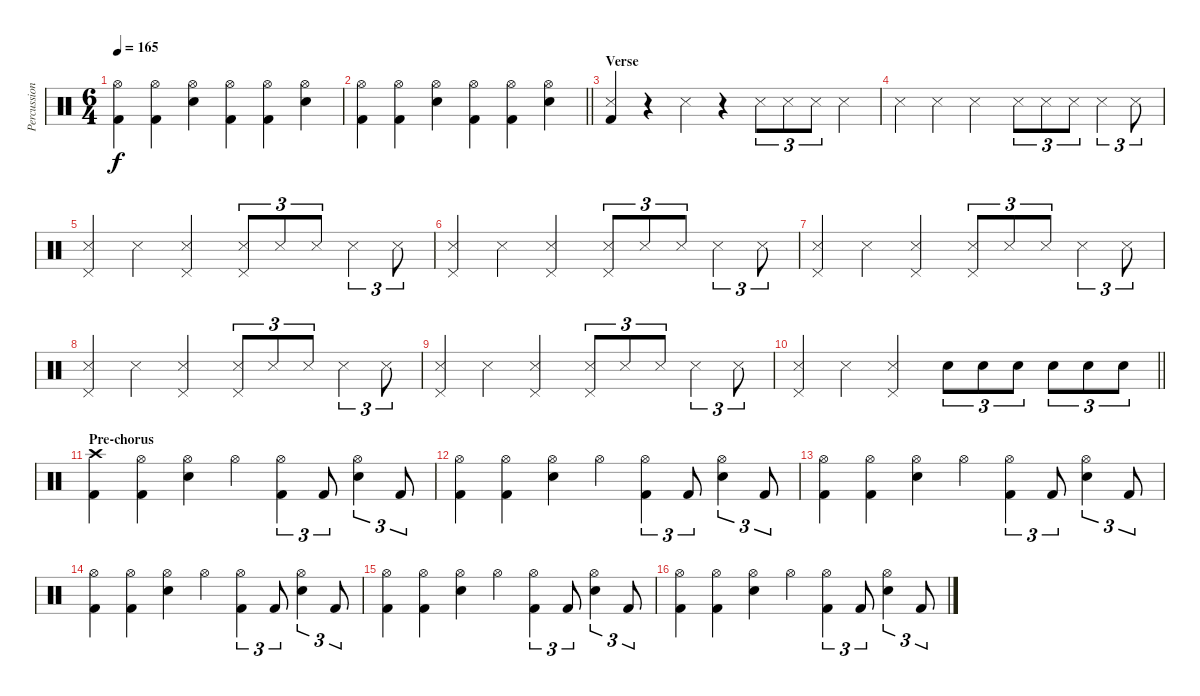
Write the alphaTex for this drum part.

\track ("Percussion" "Percussion") {instrument percussion}
\staff {score}
\articulation defaults
\ts (6 4)
\tempo 165
\clef neutral
\ks c
("Hi-Hat (open)" "Kick (hit) 2").4{dy f} ("Hi-Hat (open)" "Kick (hit) 2").4 ("Hi-Hat (open)" "Electric Snare (hit)").4 ("Hi-Hat (open)" "Kick (hit) 2").4 ("Hi-Hat (open)" "Kick (hit) 2").4 ("Hi-Hat (open)" "Electric Snare (hit)").4 |
\barLineRight lightlight
("Hi-Hat (open)" "Kick (hit) 2").4 ("Hi-Hat (open)" "Kick (hit) 2").4 ("Hi-Hat (open)" "Electric Snare (hit)").4 ("Hi-Hat (open)" "Kick (hit) 2").4 ("Hi-Hat (open)" "Kick (hit) 2").4 ("Hi-Hat (open)" "Electric Snare (hit)").4 |
\section ("" "Verse")
("Snare (side stick) 3" "Kick (hit) 2").4 r.4 "Snare (side stick) 3".4 r.4 "Snare (side stick) 3".8{tu (3 2)} "Snare (side stick) 3".8{tu (3 2)} "Snare (side stick) 3".8{tu (3 2)} "Snare (side stick) 3".4 |
"Snare (side stick) 3".4 "Snare (side stick) 3".4 "Snare (side stick) 3".2 "Snare (side stick) 3".8{tu (3 2)} "Snare (side stick) 3".8{tu (3 2)} "Snare (side stick) 3".8{tu (3 2)} "Snare (side stick) 3".4{tu (3 2)} "Snare (side stick) 3".8{tu (3 2)} |
("Pedal Hi-Hat (hit)" "Snare (side stick) 3").4 "Snare (side stick) 3".4 ("Pedal Hi-Hat (hit)" "Snare (side stick) 3").2 ("Pedal Hi-Hat (hit)" "Snare (side stick) 3").8{tu (3 2)} "Snare (side stick) 3".8{tu (3 2)} "Snare (side stick) 3".8{tu (3 2)} "Snare (side stick) 3".4{tu (3 2)} "Snare (side stick) 3".8{tu (3 2)} |
("Pedal Hi-Hat (hit)" "Snare (side stick) 3").4 "Snare (side stick) 3".4 ("Pedal Hi-Hat (hit)" "Snare (side stick) 3").2 ("Pedal Hi-Hat (hit)" "Snare (side stick) 3").8{tu (3 2)} "Snare (side stick) 3".8{tu (3 2)} "Snare (side stick) 3".8{tu (3 2)} "Snare (side stick) 3".4{tu (3 2)} "Snare (side stick) 3".8{tu (3 2)} |
("Pedal Hi-Hat (hit)" "Snare (side stick) 3").4 "Snare (side stick) 3".4 ("Pedal Hi-Hat (hit)" "Snare (side stick) 3").2 ("Pedal Hi-Hat (hit)" "Snare (side stick) 3").8{tu (3 2)} "Snare (side stick) 3".8{tu (3 2)} "Snare (side stick) 3".8{tu (3 2)} "Snare (side stick) 3".4{tu (3 2)} "Snare (side stick) 3".8{tu (3 2)} |
("Pedal Hi-Hat (hit)" "Snare (side stick) 3").4 "Snare (side stick) 3".4 ("Pedal Hi-Hat (hit)" "Snare (side stick) 3").2 ("Pedal Hi-Hat (hit)" "Snare (side stick) 3").8{tu (3 2)} "Snare (side stick) 3".8{tu (3 2)} "Snare (side stick) 3".8{tu (3 2)} "Snare (side stick) 3".4{tu (3 2)} "Snare (side stick) 3".8{tu (3 2)} |
("Pedal Hi-Hat (hit)" "Snare (side stick) 3").4 "Snare (side stick) 3".4 ("Pedal Hi-Hat (hit)" "Snare (side stick) 3").2 ("Pedal Hi-Hat (hit)" "Snare (side stick) 3").8{tu (3 2)} "Snare (side stick) 3".8{tu (3 2)} "Snare (side stick) 3".8{tu (3 2)} "Snare (side stick) 3".4{tu (3 2)} "Snare (side stick) 3".8{tu (3 2)} |
\barLineRight lightlight
("Pedal Hi-Hat (hit)" "Snare (side stick) 3").4 "Snare (side stick) 3".4 ("Pedal Hi-Hat (hit)" "Snare (side stick) 3").2 "Electric Snare (hit)".8{tu (3 2)} "Electric Snare (hit)".8{tu (3 2)} "Electric Snare (hit)".8{tu (3 2)} "Electric Snare (hit)".8{tu (3 2)} "Electric Snare (hit)".8{tu (3 2)} "Electric Snare (hit)".8{tu (3 2)} |
\section ("" "Pre-chorus")
("Crash high (hit)" "Kick (hit) 2").4 ("Hi-Hat (open)" "Kick (hit) 2").4 ("Hi-Hat (open)" "Electric Snare (hit)").4 "Hi-Hat (open)".4 ("Hi-Hat (open)" "Kick (hit) 2").4{tu (3 2)} "Kick (hit) 2".8{tu (3 2)} ("Hi-Hat (open)" "Electric Snare (hit)").4{tu (3 2)} "Kick (hit) 2".8{tu (3 2)} |
("Hi-Hat (open)" "Kick (hit) 2").4 ("Hi-Hat (open)" "Kick (hit) 2").4 ("Hi-Hat (open)" "Electric Snare (hit)").4 "Hi-Hat (open)".4 ("Hi-Hat (open)" "Kick (hit) 2").4{tu (3 2)} "Kick (hit) 2".8{tu (3 2)} ("Hi-Hat (open)" "Electric Snare (hit)").4{tu (3 2)} "Kick (hit) 2".8{tu (3 2)} |
("Hi-Hat (open)" "Kick (hit) 2").4 ("Hi-Hat (open)" "Kick (hit) 2").4 ("Hi-Hat (open)" "Electric Snare (hit)").4 "Hi-Hat (open)".4 ("Hi-Hat (open)" "Kick (hit) 2").4{tu (3 2)} "Kick (hit) 2".8{tu (3 2)} ("Hi-Hat (open)" "Electric Snare (hit)").4{tu (3 2)} "Kick (hit) 2".8{tu (3 2)} |
("Hi-Hat (open)" "Kick (hit) 2").4 ("Hi-Hat (open)" "Kick (hit) 2").4 ("Hi-Hat (open)" "Electric Snare (hit)").4 "Hi-Hat (open)".4 ("Hi-Hat (open)" "Kick (hit) 2").4{tu (3 2)} "Kick (hit) 2".8{tu (3 2)} ("Hi-Hat (open)" "Electric Snare (hit)").4{tu (3 2)} "Kick (hit) 2".8{tu (3 2)} |
("Hi-Hat (open)" "Kick (hit) 2").4 ("Hi-Hat (open)" "Kick (hit) 2").4 ("Hi-Hat (open)" "Electric Snare (hit)").4 "Hi-Hat (open)".4 ("Hi-Hat (open)" "Kick (hit) 2").4{tu (3 2)} "Kick (hit) 2".8{tu (3 2)} ("Hi-Hat (open)" "Electric Snare (hit)").4{tu (3 2)} "Kick (hit) 2".8{tu (3 2)} |
("Hi-Hat (open)" "Kick (hit) 2").4 ("Hi-Hat (open)" "Kick (hit) 2").4 ("Hi-Hat (open)" "Electric Snare (hit)").4 "Hi-Hat (open)".4 ("Hi-Hat (open)" "Kick (hit) 2").4{tu (3 2)} "Kick (hit) 2".8{tu (3 2)} ("Hi-Hat (open)" "Electric Snare (hit)").4{tu (3 2)} "Kick (hit) 2".8{tu (3 2)}
